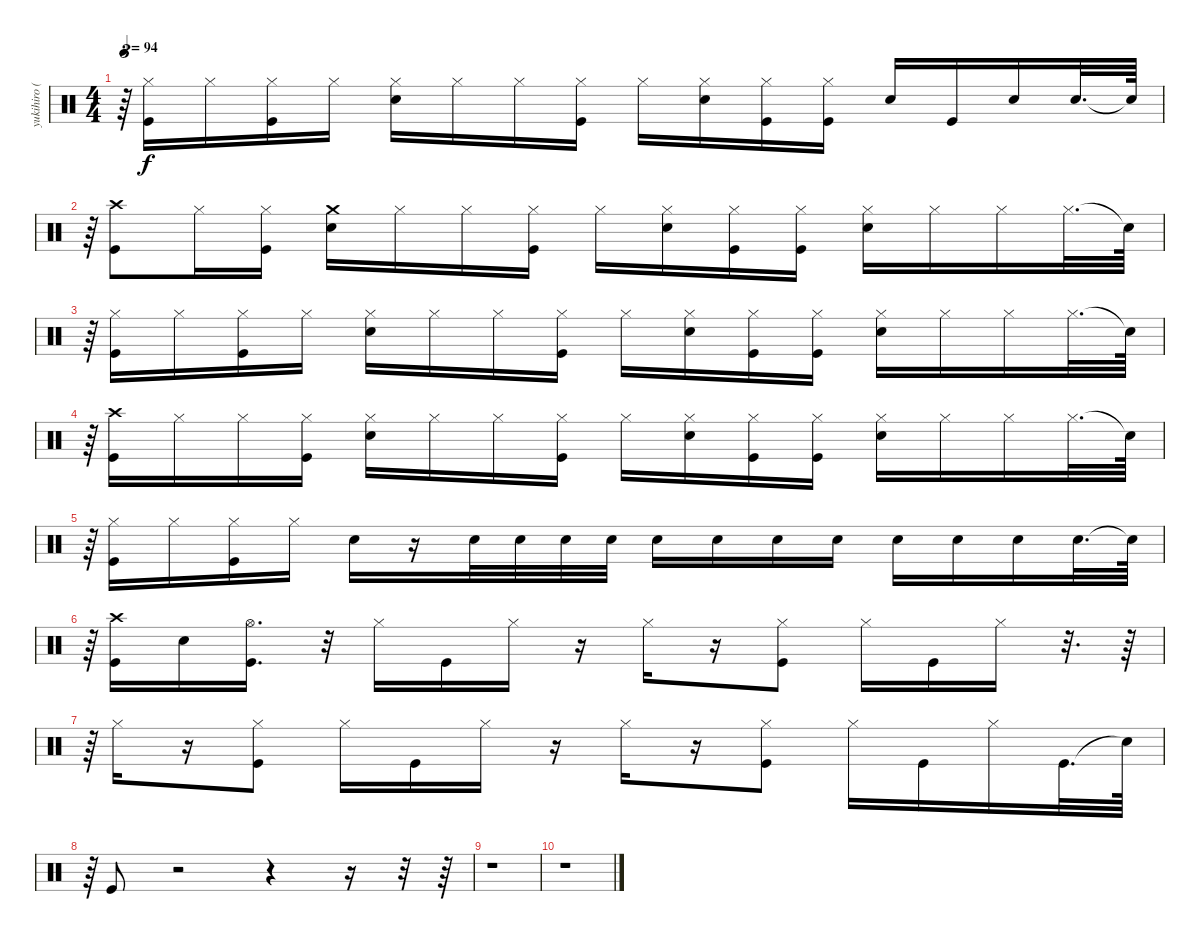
\track ("yukihiro (Drums)" "yukihiro (") {instrument percussion}
\staff {score}
\articulation defaults
\ts (4 4)
\tempo 94
\clef neutral
\ks c
r.64{tu (3 2) dy f} ("Kick (hit)" "Hi-Hat (closed)").16 "Hi-Hat (closed)".16 ("Kick (hit)" "Hi-Hat (closed)").16 "Hi-Hat (closed)".16 ("Electric Snare (hit)" "Hi-Hat (closed)").16 "Hi-Hat (closed)".16 "Hi-Hat (closed)".16 ("Kick (hit)" "Hi-Hat (closed)").16 "Hi-Hat (closed)".16 ("Electric Snare (hit)" "Hi-Hat (closed)").16 ("Kick (hit)" "Hi-Hat (closed)").16 ("Kick (hit)" "Hi-Hat (closed)").16 "Electric Snare (hit)".16 "Kick (hit)".16 "Electric Snare (hit)".16 "Electric Snare (hit)".32{d} "Snare (hit)"{t}.64 |
r.64{tu (3 2)} ("Crash high (hit)" "Kick (hit)").8 "Hi-Hat (closed)".16 ("Kick (hit)" "Hi-Hat (closed)").16 ("Crash medium (hit)" "Electric Snare (hit)").16 "Hi-Hat (closed)".16 "Hi-Hat (closed)".16 ("Kick (hit)" "Hi-Hat (closed)").16 "Hi-Hat (closed)".16 ("Electric Snare (hit)" "Hi-Hat (closed)").16 ("Kick (hit)" "Hi-Hat (closed)").16 ("Kick (hit)" "Hi-Hat (closed)").16 ("Electric Snare (hit)" "Hi-Hat (closed)").16 "Hi-Hat (closed)".16 "Hi-Hat (closed)".16 "Hi-Hat (closed)".32{d} "Snare (hit)"{t}.64 |
r.64{tu (3 2)} ("Kick (hit)" "Hi-Hat (closed)").16 "Hi-Hat (closed)".16 ("Kick (hit)" "Hi-Hat (closed)").16 "Hi-Hat (closed)".16 ("Electric Snare (hit)" "Hi-Hat (closed)").16 "Hi-Hat (closed)".16 "Hi-Hat (closed)".16 ("Kick (hit)" "Hi-Hat (closed)").16 "Hi-Hat (closed)".16 ("Electric Snare (hit)" "Hi-Hat (closed)").16 ("Kick (hit)" "Hi-Hat (closed)").16 ("Kick (hit)" "Hi-Hat (closed)").16 ("Electric Snare (hit)" "Hi-Hat (closed)").16 "Hi-Hat (closed)".16 "Hi-Hat (closed)".16 "Hi-Hat (closed)".32{d} "Snare (hit)"{t}.64 |
r.64{tu (3 2)} ("Crash high (hit)" "Kick (hit)").16 "Hi-Hat (closed)".16 "Hi-Hat (closed)".16 ("Kick (hit)" "Hi-Hat (closed)").16 ("Electric Snare (hit)" "Hi-Hat (closed)").16 "Hi-Hat (closed)".16 "Hi-Hat (closed)".16 ("Kick (hit)" "Hi-Hat (closed)").16 "Hi-Hat (closed)".16 ("Electric Snare (hit)" "Hi-Hat (closed)").16 ("Kick (hit)" "Hi-Hat (closed)").16 ("Kick (hit)" "Hi-Hat (closed)").16 ("Electric Snare (hit)" "Hi-Hat (closed)").16 "Hi-Hat (closed)".16 "Hi-Hat (closed)".16 "Hi-Hat (closed)".32{d} "Snare (hit)"{t}.64 |
r.64{tu (3 2)} ("Kick (hit)" "Hi-Hat (closed)").16 "Hi-Hat (closed)".16 ("Kick (hit)" "Hi-Hat (closed)").16 "Hi-Hat (closed)".16 "Electric Snare (hit)".16 r.16 "Electric Snare (hit)".32 "Electric Snare (hit)".32 "Electric Snare (hit)".32 "Electric Snare (hit)".32 "Electric Snare (hit)".16 "Electric Snare (hit)".16 "Electric Snare (hit)".16 "Electric Snare (hit)".16 "Electric Snare (hit)".16 "Electric Snare (hit)".16 "Electric Snare (hit)".16 "Electric Snare (hit)".32{d} "Snare (hit)"{t}.64 |
r.64{tu (3 2)} ("Crash high (hit)" "Kick (hit)").16 "Electric Snare (hit)".16 ("Hi-Hat (open)" "Kick (hit)").16{d} r.32 "Hi-Hat (closed)".16 "Kick (hit)".16 "Hi-Hat (closed)".16 r.16 "Hi-Hat (closed)".16 r.16 ("Hi-Hat (closed)" "Kick (hit)").8 "Hi-Hat (closed)".16 "Kick (hit)".16 "Hi-Hat (closed)".16 r.32{d} r.64 |
r.64{tu (3 2)} "Hi-Hat (closed)".16 r.16 ("Hi-Hat (closed)" "Kick (hit)").8 "Hi-Hat (closed)".16 "Kick (hit)".16 "Hi-Hat (closed)".16 r.16 "Hi-Hat (closed)".16 r.16 ("Hi-Hat (closed)" "Kick (hit)").8 "Hi-Hat (closed)".16 "Kick (hit)".16 "Hi-Hat (closed)".16 "Kick (hit)".32{d} "Snare (hit)"{t}.64 |
r.64{tu (3 2)} "Kick (hit)".8 r.2 r.4 r.16 r.32 r.64 |
r.1 |
r.1
